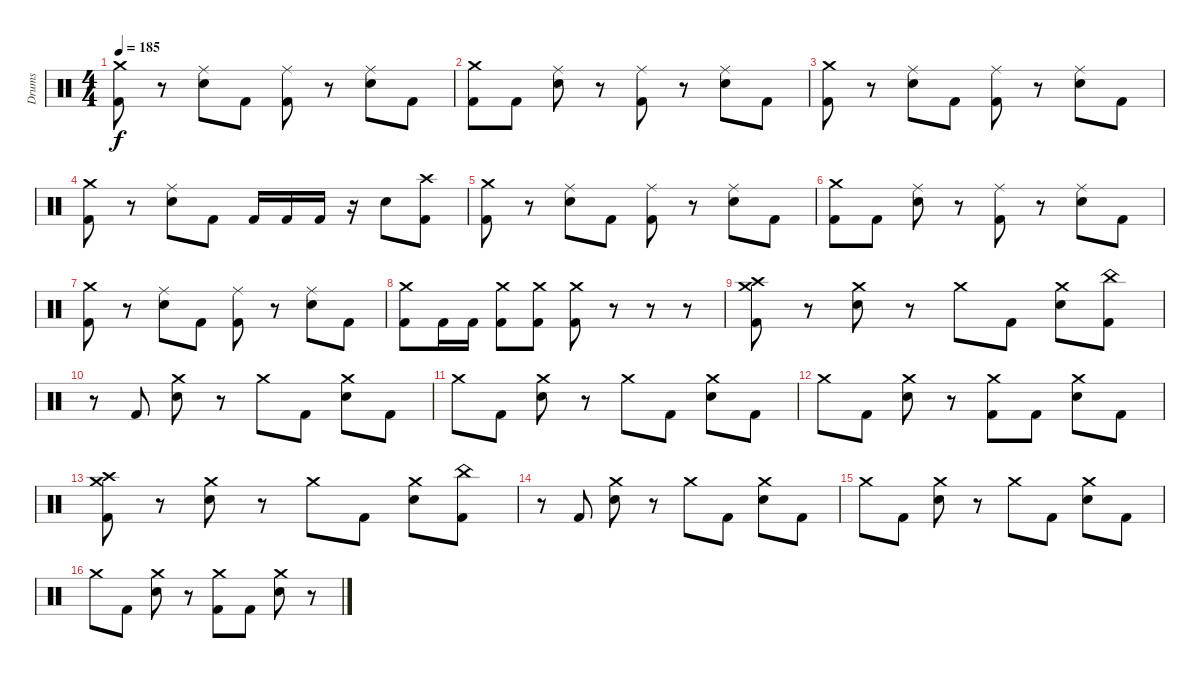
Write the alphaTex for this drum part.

\track ("Drums" "Drums") {instrument percussion}
\staff {score}
\articulation defaults
\ts (4 4)
\tempo 185
\clef neutral
\ks c
("Crash medium (hit)" "Kick (hit) 2").8{dy f} r.8 ("Snare (hit) 2" "Ride (middle)").8 "Kick (hit) 2".8 ("Ride (middle)" "Kick (hit) 2").8 r.8 ("Snare (hit) 2" "Ride (middle)").8 "Kick (hit) 2".8 |
("Crash medium (hit)" "Kick (hit) 2").8 "Kick (hit) 2".8 ("Snare (hit) 2" "Ride (middle)").8 r.8 ("Ride (middle)" "Kick (hit) 2").8 r.8 ("Snare (hit) 2" "Ride (middle)").8 "Kick (hit) 2".8 |
("Crash medium (hit)" "Kick (hit) 2").8 r.8 ("Snare (hit) 2" "Ride (middle)").8 "Kick (hit) 2".8 ("Ride (middle)" "Kick (hit) 2").8 r.8 ("Snare (hit) 2" "Ride (middle)").8 "Kick (hit) 2".8 |
("Crash medium (hit)" "Kick (hit) 2").8 r.8 ("Snare (hit) 2" "Ride (middle)").8 "Kick (hit) 2".8 "Kick (hit) 2".16 "Kick (hit) 2".16 "Kick (hit) 2".16 r.16 "Snare (hit) 2".8 ("Crash high (hit)" "Kick (hit) 2").8 |
("Crash medium (hit)" "Kick (hit) 2").8 r.8 ("Snare (hit) 2" "Ride (middle)").8 "Kick (hit) 2".8 ("Ride (middle)" "Kick (hit) 2").8 r.8 ("Snare (hit) 2" "Ride (middle)").8 "Kick (hit) 2".8 |
("Crash medium (hit)" "Kick (hit) 2").8 "Kick (hit) 2".8 ("Snare (hit) 2" "Ride (middle)").8 r.8 ("Ride (middle)" "Kick (hit) 2").8 r.8 ("Snare (hit) 2" "Ride (middle)").8 "Kick (hit) 2".8 |
("Crash medium (hit)" "Kick (hit) 2").8 r.8 ("Snare (hit) 2" "Ride (middle)").8 "Kick (hit) 2".8 ("Ride (middle)" "Kick (hit) 2").8 r.8 ("Snare (hit) 2" "Ride (middle)").8 "Kick (hit) 2".8 |
("Crash medium (hit)" "Kick (hit) 2").8 "Kick (hit) 2".16 "Kick (hit) 2".16 ("Crash medium (hit)" "Kick (hit) 2").8 ("Crash medium (hit)" "Kick (hit) 2").8 ("Crash medium (hit)" "Kick (hit) 2").8 r.8 r.8 r.8 |
("Crash medium (hit)" "Crash high (hit)" "Kick (hit) 2").8 r.8 ("Crash medium (hit)" "Snare (hit) 2").8 r.8 "Crash medium (hit)".8 "Kick (hit) 2".8 ("Crash medium (hit)" "Snare (hit) 2").8 ("China (hit)" "Kick (hit) 2").8 |
r.8 "Kick (hit) 2".8 ("Crash medium (hit)" "Snare (hit) 2").8 r.8 "Crash medium (hit)".8 "Kick (hit) 2".8 ("Crash medium (hit)" "Snare (hit) 2").8 "Kick (hit) 2".8 |
"Crash medium (hit)".8 "Kick (hit) 2".8 ("Crash medium (hit)" "Snare (hit) 2").8 r.8 "Crash medium (hit)".8 "Kick (hit) 2".8 ("Crash medium (hit)" "Snare (hit) 2").8 "Kick (hit) 2".8 |
"Crash medium (hit)".8 "Kick (hit) 2".8 ("Crash medium (hit)" "Snare (hit) 2").8 r.8 ("Crash medium (hit)" "Kick (hit) 2").8 "Kick (hit) 2".8 ("Crash medium (hit)" "Snare (hit) 2").8 "Kick (hit) 2".8 |
("Crash medium (hit)" "Crash high (hit)" "Kick (hit) 2").8 r.8 ("Crash medium (hit)" "Snare (hit) 2").8 r.8 "Crash medium (hit)".8 "Kick (hit) 2".8 ("Crash medium (hit)" "Snare (hit) 2").8 ("China (hit)" "Kick (hit) 2").8 |
r.8 "Kick (hit) 2".8 ("Crash medium (hit)" "Snare (hit) 2").8 r.8 "Crash medium (hit)".8 "Kick (hit) 2".8 ("Crash medium (hit)" "Snare (hit) 2").8 "Kick (hit) 2".8 |
"Crash medium (hit)".8 "Kick (hit) 2".8 ("Crash medium (hit)" "Snare (hit) 2").8 r.8 "Crash medium (hit)".8 "Kick (hit) 2".8 ("Crash medium (hit)" "Snare (hit) 2").8 "Kick (hit) 2".8 |
"Crash medium (hit)".8 "Kick (hit) 2".8 ("Crash medium (hit)" "Snare (hit) 2").8 r.8 ("Crash medium (hit)" "Kick (hit) 2").8 "Kick (hit) 2".8 ("Crash medium (hit)" "Snare (hit) 2").8 r.8
